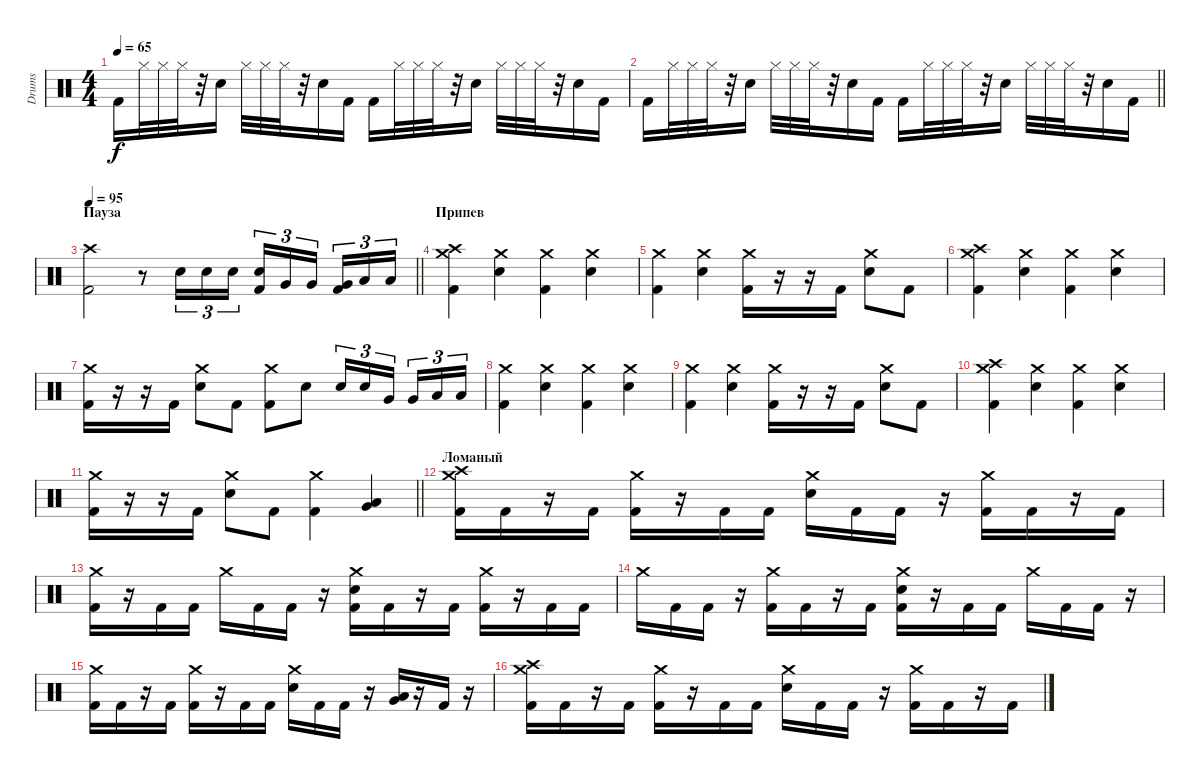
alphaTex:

\track ("Drums" "Drums") {instrument percussion}
\staff {score}
\articulation defaults
\ts (4 4)
\tempo 65
\clef neutral
\ks c "Kick (hit) 2".16{dy f} "Hi-Hat (closed)".32 "Hi-Hat (closed)".32 "Hi-Hat (closed)".32
r.32 "Electric Snare (hit)".16 "Hi-Hat (closed)".32 "Hi-Hat (closed)".32 "Hi-Hat (closed)".32 r.32 "Electric Snare (hit)".16 "Kick (hit) 2".16 "Kick (hit) 2".16 "Hi-Hat (closed)".32 "Hi-Hat (closed)".32 "Hi-Hat (closed)".32 r.32 "Electric Snare (hit)".16 "Hi-Hat (closed)".32 "Hi-Hat (closed)".32 "Hi-Hat (closed)".32 r.32 "Electric Snare (hit)".16 "Kick (hit) 2".16 |
\barLineRight lightlight "Kick (hit) 2".16 "Hi-Hat (closed)".32 "Hi-Hat (closed)".32 "Hi-Hat (closed)".32
r.32 "Electric Snare (hit)".16 "Hi-Hat (closed)".32 "Hi-Hat (closed)".32 "Hi-Hat (closed)".32 r.32 "Electric Snare (hit)".16 "Kick (hit) 2".16 "Kick (hit) 2".16 "Hi-Hat (closed)".32 "Hi-Hat (closed)".32 "Hi-Hat (closed)".32 r.32 "Electric Snare (hit)".16 "Hi-Hat (closed)".32 "Hi-Hat (closed)".32 "Hi-Hat (closed)".32 r.32 "Electric Snare (hit)".16 "Kick (hit) 2".16 |
\section ("" "Пауза")
\tempo 95
\barLineRight lightlight
("Crash high (hit)" "Kick (hit) 2").2 r.8 "Electric Snare (hit)".16{tu (3 2)} "Electric Snare (hit)".16{tu (3 2)} "Electric Snare (hit)".16{tu (3 2)} ("Electric Snare (hit)" "Kick (hit) 2").16{tu (3 2)} "Very Low Tom (hit)".16{tu (3 2)} "Very Low Tom (hit)".16{tu (3 2) beam splitsecondary} ("Very Low Tom (hit)" "Kick (hit) 2").16{tu (3 2)} "Low Floor Tom (hit)".16{tu (3 2)} "Low Floor Tom (hit)".16{tu (3 2)} |
\section ("" "Припев")
("Crash medium (hit)" "Crash high (hit)" "Kick (hit) 2").4 ("Crash medium (hit)" "Electric Snare (hit)").4 ("Crash medium (hit)" "Kick (hit) 2").4 ("Crash medium (hit)" "Electric Snare (hit)").4 |
("Crash medium (hit)" "Kick (hit) 2").4 ("Crash medium (hit)" "Electric Snare (hit)").4 ("Crash medium (hit)" "Kick (hit) 2").16 r.16 r.16 "Kick (hit) 2".16 ("Crash medium (hit)" "Electric Snare (hit)").8 "Kick (hit) 2".8 |
("Crash medium (hit)" "Crash high (hit)" "Kick (hit) 2").4 ("Crash medium (hit)" "Electric Snare (hit)").4 ("Crash medium (hit)" "Kick (hit) 2").4 ("Crash medium (hit)" "Electric Snare (hit)").4 |
("Crash medium (hit)" "Kick (hit) 2").16 r.16 r.16 "Kick (hit) 2".16 ("Crash medium (hit)" "Electric Snare (hit)").8 "Kick (hit) 2".8 ("Crash medium (hit)" "Kick (hit) 2").8 "Electric Snare (hit)".8 "Electric Snare (hit)".16{tu (3 2)} "Electric Snare (hit)".16{tu (3 2)} "Very Low Tom (hit)".16{tu (3 2) beam splitsecondary} "Very Low Tom (hit)".16{tu (3 2)} "Low Floor Tom (hit)".16{tu (3 2)} "Low Floor Tom (hit)".16{tu (3 2)} |
("Crash medium (hit)" "Kick (hit) 2").4 ("Crash medium (hit)" "Electric Snare (hit)").4 ("Crash medium (hit)" "Kick (hit) 2").4 ("Crash medium (hit)" "Electric Snare (hit)").4 |
("Crash medium (hit)" "Kick (hit) 2").4 ("Crash medium (hit)" "Electric Snare (hit)").4 ("Crash medium (hit)" "Kick (hit) 2").16 r.16 r.16 "Kick (hit) 2".16 ("Crash medium (hit)" "Electric Snare (hit)").8 "Kick (hit) 2".8 |
("Crash medium (hit)" "Crash high (hit)" "Kick (hit) 2").4 ("Crash medium (hit)" "Electric Snare (hit)").4 ("Crash medium (hit)" "Kick (hit) 2").4 ("Crash medium (hit)" "Electric Snare (hit)").4 |
\barLineRight lightlight
("Crash medium (hit)" "Kick (hit) 2").16 r.16 r.16 "Kick (hit) 2".16 ("Crash medium (hit)" "Electric Snare (hit)").8 "Kick (hit) 2".8 ("Crash medium (hit)" "Kick (hit) 2").4 ("Very Low Tom (hit)" "Low Floor Tom (hit)").4 |
\section ("" "Ломаный")
("Crash medium (hit)" "Crash high (hit)" "Kick (hit) 2").16 "Kick (hit) 2".16 r.16 "Kick (hit) 2".16 ("Crash medium (hit)" "Kick (hit) 2").16 r.16 "Kick (hit) 2".16 "Kick (hit) 2".16 ("Crash medium (hit)" "Electric Snare (hit)").16 "Kick (hit) 2".16 "Kick (hit) 2".16 r.16 ("Crash medium (hit)" "Kick (hit) 2").16 "Kick (hit) 2".16 r.16 "Kick (hit) 2".16 |
("Crash medium (hit)" "Kick (hit) 2").16 r.16 "Kick (hit) 2".16 "Kick (hit) 2".16 "Crash medium (hit)".16 "Kick (hit) 2".16 "Kick (hit) 2".16 r.16 ("Crash medium (hit)" "Electric Snare (hit)" "Kick (hit) 2").16 "Kick (hit) 2".16 r.16 "Kick (hit) 2".16 ("Crash medium (hit)" "Kick (hit) 2").16 r.16 "Kick (hit) 2".16 "Kick (hit) 2".16 |
"Crash medium (hit)".16 "Kick (hit) 2".16 "Kick (hit) 2".16 r.16 ("Crash medium (hit)" "Kick (hit) 2").16 "Kick (hit) 2".16 r.16 "Kick (hit) 2".16 ("Crash medium (hit)" "Electric Snare (hit)" "Kick (hit) 2").16 r.16 "Kick (hit) 2".16 "Kick (hit) 2".16 "Crash medium (hit)".16 "Kick (hit) 2".16 "Kick (hit) 2".16 r.16 |
("Crash medium (hit)" "Kick (hit) 2").16 "Kick (hit) 2".16 r.16 "Kick (hit) 2".16 ("Crash medium (hit)" "Kick (hit) 2").16 r.16 "Kick (hit) 2".16 "Kick (hit) 2".16 ("Crash medium (hit)" "Electric Snare (hit)").16 "Kick (hit) 2".16 "Kick (hit) 2".16 r.16 ("Very Low Tom (hit)" "Low Floor Tom (hit)").16 r.16 "Kick (hit) 2".16 r.16 |
("Crash medium (hit)" "Crash high (hit)" "Kick (hit) 2").16 "Kick (hit) 2".16 r.16 "Kick (hit) 2".16 ("Crash medium (hit)" "Kick (hit) 2").16 r.16 "Kick (hit) 2".16 "Kick (hit) 2".16 ("Crash medium (hit)" "Electric Snare (hit)").16 "Kick (hit) 2".16 "Kick (hit) 2".16 r.16 ("Crash medium (hit)" "Kick (hit) 2").16 "Kick (hit) 2".16 r.16 "Kick (hit) 2".16
